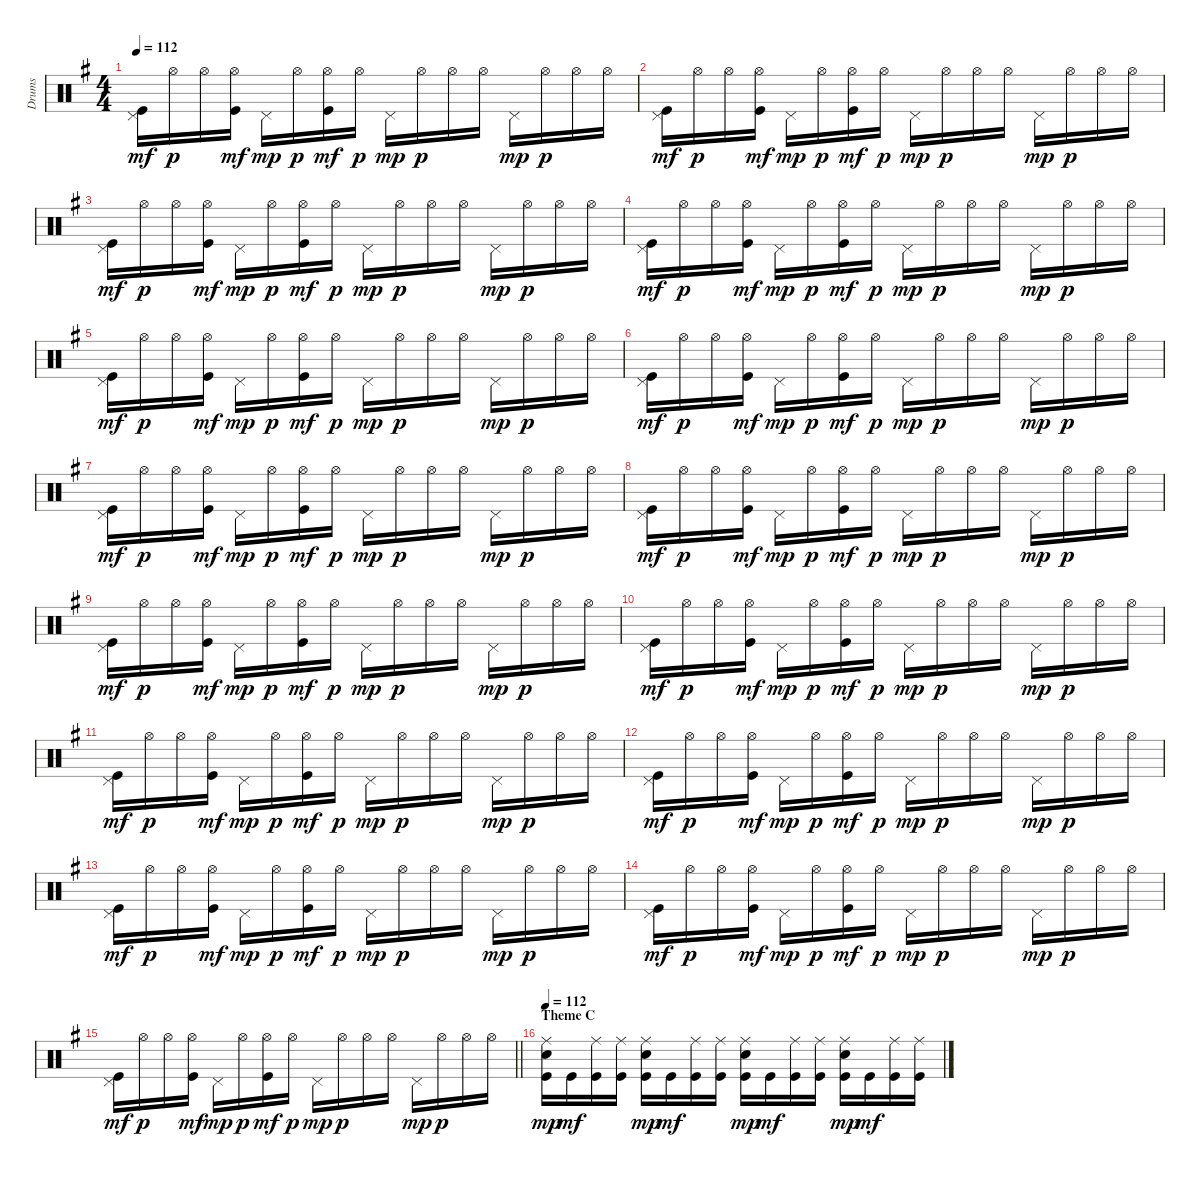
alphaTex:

\track ("Drums" "Drums") {instrument percussion}
\staff {score}
\articulation defaults
\ts (4 4)
\tempo 112
\clef neutral
\ks g
("Pedal Hi-Hat (hit)" "Kick (hit)").16{dy mf} "Hi-Hat (open)".16{dy p} "Hi-Hat (open)".16 ("Hi-Hat (open)" "Kick (hit)").16{dy mf} "Pedal Hi-Hat (hit)".16{dy mp} "Hi-Hat (open)".16{dy p} ("Hi-Hat (open)" "Kick (hit)").16{dy mf} "Hi-Hat (open)".16{dy p} "Pedal Hi-Hat (hit)".16{dy mp} "Hi-Hat (open)".16{dy p} "Hi-Hat (open)".16 "Hi-Hat (open)".16 "Pedal Hi-Hat (hit)".16{dy mp} "Hi-Hat (open)".16{dy p} "Hi-Hat (open)".16 "Hi-Hat (open)".16 |
("Pedal Hi-Hat (hit)" "Kick (hit)").16{dy mf} "Hi-Hat (open)".16{dy p} "Hi-Hat (open)".16 ("Hi-Hat (open)" "Kick (hit)").16{dy mf} "Pedal Hi-Hat (hit)".16{dy mp} "Hi-Hat (open)".16{dy p} ("Hi-Hat (open)" "Kick (hit)").16{dy mf} "Hi-Hat (open)".16{dy p} "Pedal Hi-Hat (hit)".16{dy mp} "Hi-Hat (open)".16{dy p} "Hi-Hat (open)".16 "Hi-Hat (open)".16 "Pedal Hi-Hat (hit)".16{dy mp} "Hi-Hat (open)".16{dy p} "Hi-Hat (open)".16 "Hi-Hat (open)".16 |
("Pedal Hi-Hat (hit)" "Kick (hit)").16{dy mf} "Hi-Hat (open)".16{dy p} "Hi-Hat (open)".16 ("Hi-Hat (open)" "Kick (hit)").16{dy mf} "Pedal Hi-Hat (hit)".16{dy mp} "Hi-Hat (open)".16{dy p} ("Hi-Hat (open)" "Kick (hit)").16{dy mf} "Hi-Hat (open)".16{dy p} "Pedal Hi-Hat (hit)".16{dy mp} "Hi-Hat (open)".16{dy p} "Hi-Hat (open)".16 "Hi-Hat (open)".16 "Pedal Hi-Hat (hit)".16{dy mp} "Hi-Hat (open)".16{dy p} "Hi-Hat (open)".16 "Hi-Hat (open)".16 |
("Pedal Hi-Hat (hit)" "Kick (hit)").16{dy mf} "Hi-Hat (open)".16{dy p} "Hi-Hat (open)".16 ("Hi-Hat (open)" "Kick (hit)").16{dy mf} "Pedal Hi-Hat (hit)".16{dy mp} "Hi-Hat (open)".16{dy p} ("Hi-Hat (open)" "Kick (hit)").16{dy mf} "Hi-Hat (open)".16{dy p} "Pedal Hi-Hat (hit)".16{dy mp} "Hi-Hat (open)".16{dy p} "Hi-Hat (open)".16 "Hi-Hat (open)".16 "Pedal Hi-Hat (hit)".16{dy mp} "Hi-Hat (open)".16{dy p} "Hi-Hat (open)".16 "Hi-Hat (open)".16 |
("Pedal Hi-Hat (hit)" "Kick (hit)").16{dy mf} "Hi-Hat (open)".16{dy p} "Hi-Hat (open)".16 ("Hi-Hat (open)" "Kick (hit)").16{dy mf} "Pedal Hi-Hat (hit)".16{dy mp} "Hi-Hat (open)".16{dy p} ("Hi-Hat (open)" "Kick (hit)").16{dy mf} "Hi-Hat (open)".16{dy p} "Pedal Hi-Hat (hit)".16{dy mp} "Hi-Hat (open)".16{dy p} "Hi-Hat (open)".16 "Hi-Hat (open)".16 "Pedal Hi-Hat (hit)".16{dy mp} "Hi-Hat (open)".16{dy p} "Hi-Hat (open)".16 "Hi-Hat (open)".16 |
("Pedal Hi-Hat (hit)" "Kick (hit)").16{dy mf} "Hi-Hat (open)".16{dy p} "Hi-Hat (open)".16 ("Hi-Hat (open)" "Kick (hit)").16{dy mf} "Pedal Hi-Hat (hit)".16{dy mp} "Hi-Hat (open)".16{dy p} ("Hi-Hat (open)" "Kick (hit)").16{dy mf} "Hi-Hat (open)".16{dy p} "Pedal Hi-Hat (hit)".16{dy mp} "Hi-Hat (open)".16{dy p} "Hi-Hat (open)".16 "Hi-Hat (open)".16 "Pedal Hi-Hat (hit)".16{dy mp} "Hi-Hat (open)".16{dy p} "Hi-Hat (open)".16 "Hi-Hat (open)".16 |
("Pedal Hi-Hat (hit)" "Kick (hit)").16{dy mf} "Hi-Hat (open)".16{dy p} "Hi-Hat (open)".16 ("Hi-Hat (open)" "Kick (hit)").16{dy mf} "Pedal Hi-Hat (hit)".16{dy mp} "Hi-Hat (open)".16{dy p} ("Hi-Hat (open)" "Kick (hit)").16{dy mf} "Hi-Hat (open)".16{dy p} "Pedal Hi-Hat (hit)".16{dy mp} "Hi-Hat (open)".16{dy p} "Hi-Hat (open)".16 "Hi-Hat (open)".16 "Pedal Hi-Hat (hit)".16{dy mp} "Hi-Hat (open)".16{dy p} "Hi-Hat (open)".16 "Hi-Hat (open)".16 |
("Pedal Hi-Hat (hit)" "Kick (hit)").16{dy mf} "Hi-Hat (open)".16{dy p} "Hi-Hat (open)".16 ("Hi-Hat (open)" "Kick (hit)").16{dy mf} "Pedal Hi-Hat (hit)".16{dy mp} "Hi-Hat (open)".16{dy p} ("Hi-Hat (open)" "Kick (hit)").16{dy mf} "Hi-Hat (open)".16{dy p} "Pedal Hi-Hat (hit)".16{dy mp} "Hi-Hat (open)".16{dy p} "Hi-Hat (open)".16 "Hi-Hat (open)".16 "Pedal Hi-Hat (hit)".16{dy mp} "Hi-Hat (open)".16{dy p} "Hi-Hat (open)".16 "Hi-Hat (open)".16 |
("Pedal Hi-Hat (hit)" "Kick (hit)").16{dy mf} "Hi-Hat (open)".16{dy p} "Hi-Hat (open)".16 ("Hi-Hat (open)" "Kick (hit)").16{dy mf} "Pedal Hi-Hat (hit)".16{dy mp} "Hi-Hat (open)".16{dy p} ("Hi-Hat (open)" "Kick (hit)").16{dy mf} "Hi-Hat (open)".16{dy p} "Pedal Hi-Hat (hit)".16{dy mp} "Hi-Hat (open)".16{dy p} "Hi-Hat (open)".16 "Hi-Hat (open)".16 "Pedal Hi-Hat (hit)".16{dy mp} "Hi-Hat (open)".16{dy p} "Hi-Hat (open)".16 "Hi-Hat (open)".16 |
("Pedal Hi-Hat (hit)" "Kick (hit)").16{dy mf} "Hi-Hat (open)".16{dy p} "Hi-Hat (open)".16 ("Hi-Hat (open)" "Kick (hit)").16{dy mf} "Pedal Hi-Hat (hit)".16{dy mp} "Hi-Hat (open)".16{dy p} ("Hi-Hat (open)" "Kick (hit)").16{dy mf} "Hi-Hat (open)".16{dy p} "Pedal Hi-Hat (hit)".16{dy mp} "Hi-Hat (open)".16{dy p} "Hi-Hat (open)".16 "Hi-Hat (open)".16 "Pedal Hi-Hat (hit)".16{dy mp} "Hi-Hat (open)".16{dy p} "Hi-Hat (open)".16 "Hi-Hat (open)".16 |
("Pedal Hi-Hat (hit)" "Kick (hit)").16{dy mf} "Hi-Hat (open)".16{dy p} "Hi-Hat (open)".16 ("Hi-Hat (open)" "Kick (hit)").16{dy mf} "Pedal Hi-Hat (hit)".16{dy mp} "Hi-Hat (open)".16{dy p} ("Hi-Hat (open)" "Kick (hit)").16{dy mf} "Hi-Hat (open)".16{dy p} "Pedal Hi-Hat (hit)".16{dy mp} "Hi-Hat (open)".16{dy p} "Hi-Hat (open)".16 "Hi-Hat (open)".16 "Pedal Hi-Hat (hit)".16{dy mp} "Hi-Hat (open)".16{dy p} "Hi-Hat (open)".16 "Hi-Hat (open)".16 |
("Pedal Hi-Hat (hit)" "Kick (hit)").16{dy mf} "Hi-Hat (open)".16{dy p} "Hi-Hat (open)".16 ("Hi-Hat (open)" "Kick (hit)").16{dy mf} "Pedal Hi-Hat (hit)".16{dy mp} "Hi-Hat (open)".16{dy p} ("Hi-Hat (open)" "Kick (hit)").16{dy mf} "Hi-Hat (open)".16{dy p} "Pedal Hi-Hat (hit)".16{dy mp} "Hi-Hat (open)".16{dy p} "Hi-Hat (open)".16 "Hi-Hat (open)".16 "Pedal Hi-Hat (hit)".16{dy mp} "Hi-Hat (open)".16{dy p} "Hi-Hat (open)".16 "Hi-Hat (open)".16 |
("Pedal Hi-Hat (hit)" "Kick (hit)").16{dy mf} "Hi-Hat (open)".16{dy p} "Hi-Hat (open)".16 ("Hi-Hat (open)" "Kick (hit)").16{dy mf} "Pedal Hi-Hat (hit)".16{dy mp} "Hi-Hat (open)".16{dy p} ("Hi-Hat (open)" "Kick (hit)").16{dy mf} "Hi-Hat (open)".16{dy p} "Pedal Hi-Hat (hit)".16{dy mp} "Hi-Hat (open)".16{dy p} "Hi-Hat (open)".16 "Hi-Hat (open)".16 "Pedal Hi-Hat (hit)".16{dy mp} "Hi-Hat (open)".16{dy p} "Hi-Hat (open)".16 "Hi-Hat (open)".16 |
("Pedal Hi-Hat (hit)" "Kick (hit)").16{dy mf} "Hi-Hat (open)".16{dy p} "Hi-Hat (open)".16 ("Hi-Hat (open)" "Kick (hit)").16{dy mf} "Pedal Hi-Hat (hit)".16{dy mp} "Hi-Hat (open)".16{dy p} ("Hi-Hat (open)" "Kick (hit)").16{dy mf} "Hi-Hat (open)".16{dy p} "Pedal Hi-Hat (hit)".16{dy mp} "Hi-Hat (open)".16{dy p} "Hi-Hat (open)".16 "Hi-Hat (open)".16 "Pedal Hi-Hat (hit)".16{dy mp} "Hi-Hat (open)".16{dy p} "Hi-Hat (open)".16 "Hi-Hat (open)".16 |
\barLineRight lightlight
("Pedal Hi-Hat (hit)" "Kick (hit)").16{dy mf} "Hi-Hat (open)".16{dy p} "Hi-Hat (open)".16 ("Hi-Hat (open)" "Kick (hit)").16{dy mf} "Pedal Hi-Hat (hit)".16{dy mp} "Hi-Hat (open)".16{dy p} ("Hi-Hat (open)" "Kick (hit)").16{dy mf} "Hi-Hat (open)".16{dy p} "Pedal Hi-Hat (hit)".16{dy mp} "Hi-Hat (open)".16{dy p} "Hi-Hat (open)".16 "Hi-Hat (open)".16 "Pedal Hi-Hat (hit)".16{dy mp} "Hi-Hat (open)".16{dy p} "Hi-Hat (open)".16 "Hi-Hat (open)".16 |
\section ("" "Theme C")
\tempo 112
("Ride (middle)" "Snare (hit) 2" "Kick (hit)").16{dy mp} "Kick (hit)".16{dy mf} ("Ride (middle)" "Kick (hit)").16 ("Ride (middle)" "Kick (hit)").16 ("Ride (middle)" "Snare (hit) 2" "Kick (hit)").16{dy mp} "Kick (hit)".16{dy mf} ("Ride (middle)" "Kick (hit)").16 ("Ride (middle)" "Kick (hit)").16 ("Ride (middle)" "Snare (hit) 2" "Kick (hit)").16{dy mp} "Kick (hit)".16{dy mf} ("Ride (middle)" "Kick (hit)").16 ("Ride (middle)" "Kick (hit)").16 ("Ride (middle)" "Snare (hit) 2" "Kick (hit)").16{dy mp} "Kick (hit)".16{dy mf} ("Ride (middle)" "Kick (hit)").16 ("Ride (middle)" "Kick (hit)").16
